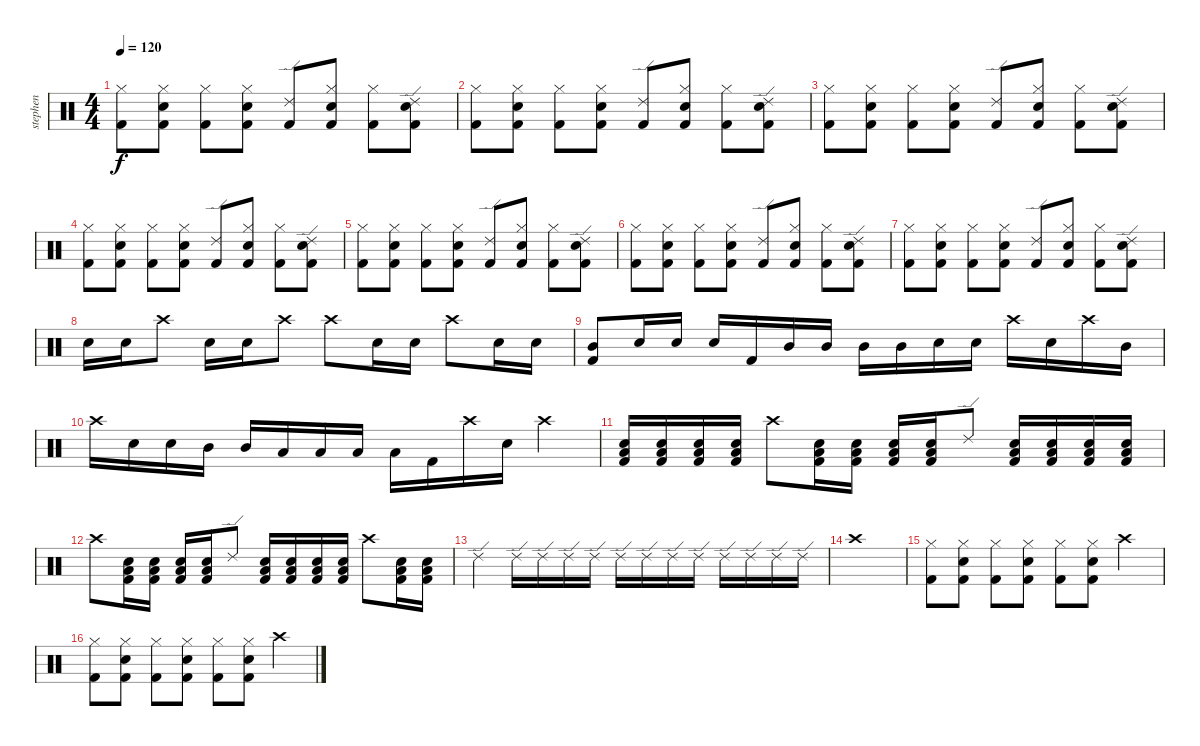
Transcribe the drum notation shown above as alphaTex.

\track ("stephen" "stephen") {instrument percussion}
\staff {score}
\articulation defaults
\ts (4 4)
\tempo 120
\clef neutral
\ks c
("Kick (hit) 2" "Hi-Hat (closed)").8{dy f} ("Kick (hit) 2" "Snare (hit) 2" "Hi-Hat (closed)").8 ("Kick (hit) 2" "Hi-Hat (closed)").8 ("Snare (hit) 2" "Kick (hit) 2" "Hi-Hat (closed)").8 ("Kick (hit) 2" "Ride (edge) 2").8 ("Snare (hit) 2" "Kick (hit) 2" "Hi-Hat (closed)").8 ("Kick (hit) 2" "Hi-Hat (closed)").8 ("Snare (hit) 2" "Kick (hit) 2" "Ride (edge) 2").8 |
("Kick (hit) 2" "Hi-Hat (closed)").8 ("Kick (hit) 2" "Snare (hit) 2" "Hi-Hat (closed)").8 ("Kick (hit) 2" "Hi-Hat (closed)").8 ("Snare (hit) 2" "Kick (hit) 2" "Hi-Hat (closed)").8 ("Kick (hit) 2" "Ride (edge) 2").8 ("Snare (hit) 2" "Kick (hit) 2" "Hi-Hat (closed)").8 ("Kick (hit) 2" "Hi-Hat (closed)").8 ("Snare (hit) 2" "Kick (hit) 2" "Ride (edge) 2").8 |
("Kick (hit) 2" "Hi-Hat (closed)").8 ("Kick (hit) 2" "Snare (hit) 2" "Hi-Hat (closed)").8 ("Kick (hit) 2" "Hi-Hat (closed)").8 ("Snare (hit) 2" "Kick (hit) 2" "Hi-Hat (closed)").8 ("Kick (hit) 2" "Ride (edge) 2").8 ("Snare (hit) 2" "Kick (hit) 2" "Hi-Hat (closed)").8 ("Kick (hit) 2" "Hi-Hat (closed)").8 ("Snare (hit) 2" "Kick (hit) 2" "Ride (edge) 2").8 |
("Kick (hit) 2" "Hi-Hat (closed)").8 ("Kick (hit) 2" "Snare (hit) 2" "Hi-Hat (closed)").8 ("Kick (hit) 2" "Hi-Hat (closed)").8 ("Snare (hit) 2" "Kick (hit) 2" "Hi-Hat (closed)").8 ("Kick (hit) 2" "Ride (edge) 2").8 ("Snare (hit) 2" "Kick (hit) 2" "Hi-Hat (closed)").8 ("Kick (hit) 2" "Hi-Hat (closed)").8 ("Snare (hit) 2" "Kick (hit) 2" "Ride (edge) 2").8 |
("Kick (hit) 2" "Hi-Hat (closed)").8 ("Kick (hit) 2" "Snare (hit) 2" "Hi-Hat (closed)").8 ("Kick (hit) 2" "Hi-Hat (closed)").8 ("Snare (hit) 2" "Kick (hit) 2" "Hi-Hat (closed)").8 ("Kick (hit) 2" "Ride (edge) 2").8 ("Snare (hit) 2" "Kick (hit) 2" "Hi-Hat (closed)").8 ("Kick (hit) 2" "Hi-Hat (closed)").8 ("Snare (hit) 2" "Kick (hit) 2" "Ride (edge) 2").8 |
("Kick (hit) 2" "Hi-Hat (closed)").8 ("Kick (hit) 2" "Snare (hit) 2" "Hi-Hat (closed)").8 ("Kick (hit) 2" "Hi-Hat (closed)").8 ("Snare (hit) 2" "Kick (hit) 2" "Hi-Hat (closed)").8 ("Kick (hit) 2" "Ride (edge) 2").8 ("Snare (hit) 2" "Kick (hit) 2" "Hi-Hat (closed)").8 ("Kick (hit) 2" "Hi-Hat (closed)").8 ("Snare (hit) 2" "Kick (hit) 2" "Ride (edge) 2").8 |
("Kick (hit) 2" "Hi-Hat (closed)").8 ("Kick (hit) 2" "Snare (hit) 2" "Hi-Hat (closed)").8 ("Kick (hit) 2" "Hi-Hat (closed)").8 ("Snare (hit) 2" "Kick (hit) 2" "Hi-Hat (closed)").8 ("Kick (hit) 2" "Ride (edge) 2").8 ("Snare (hit) 2" "Kick (hit) 2" "Hi-Hat (closed)").8 ("Kick (hit) 2" "Hi-Hat (closed)").8 ("Snare (hit) 2" "Kick (hit) 2" "Ride (edge) 2").8 |
"Snare (hit) 2".16 "Snare (hit) 2".16 "Crash high (hit)".8 "Snare (hit) 2".16 "Snare (hit) 2".16 "Crash high (hit)".8 "Crash high (hit)".8 "Snare (hit) 2".16 "Snare (hit) 2".16 "Crash high (hit)".8 "Snare (hit) 2".16 "Snare (hit) 2".16 |
("Kick (hit) 2" "Mid Tom (hit)").8 "Snare (hit) 2".16 "Snare (hit) 2".16 "Snare (hit) 2".16 "Kick (hit) 2".16 "Mid Tom (hit)".16 "Mid Tom (hit)".16 "Mid Tom (hit)".16 "Mid Tom (hit)".16 "Snare (hit) 2".16 "Snare (hit) 2".16 "Crash high (hit)".16 "Snare (hit) 2".16 "Crash high (hit)".16 "Mid Tom (hit)".16 |
"Crash high (hit)".16 "Snare (hit) 2".16 "Snare (hit) 2".16 "Mid Tom (hit)".16 "Mid Tom (hit)".16 "Low Tom (hit)".16 "Low Tom (hit)".16 "Low Floor Tom (hit)".16 "Low Floor Tom (hit)".16 "Kick (hit) 2".16 "Crash high (hit)".16 "Snare (hit) 2".16 "Crash high (hit)".4 |
("Low Floor Tom (hit)" "Kick (hit) 2" "Snare (hit) 2").16 ("Low Floor Tom (hit)" "Kick (hit) 2" "Snare (hit) 2").16 ("Low Floor Tom (hit)" "Kick (hit) 2" "Snare (hit) 2").16 ("Low Floor Tom (hit)" "Kick (hit) 2" "Snare (hit) 2").16 "Crash high (hit)".8 ("Low Floor Tom (hit)" "Kick (hit) 2" "Snare (hit) 2").16 ("Low Floor Tom (hit)" "Kick (hit) 2" "Snare (hit) 2").16 ("Low Floor Tom (hit)" "Kick (hit) 2" "Snare (hit) 2").16 ("Low Floor Tom (hit)" "Kick (hit) 2" "Snare (hit) 2").16 "Ride (edge) 2".8 ("Low Floor Tom (hit)" "Kick (hit) 2" "Snare (hit) 2").16 ("Low Floor Tom (hit)" "Kick (hit) 2" "Snare (hit) 2").16 ("Low Floor Tom (hit)" "Kick (hit) 2" "Snare (hit) 2").16 ("Low Floor Tom (hit)" "Kick (hit) 2" "Snare (hit) 2").16 |
"Crash high (hit)".8 ("Low Floor Tom (hit)" "Kick (hit) 2" "Snare (hit) 2").16 ("Low Floor Tom (hit)" "Kick (hit) 2" "Snare (hit) 2").16 ("Low Floor Tom (hit)" "Kick (hit) 2" "Snare (hit) 2").16 ("Low Floor Tom (hit)" "Kick (hit) 2" "Snare (hit) 2").16 "Ride (edge) 2".8 ("Low Floor Tom (hit)" "Kick (hit) 2" "Snare (hit) 2").16 ("Low Floor Tom (hit)" "Kick (hit) 2" "Snare (hit) 2").16 ("Low Floor Tom (hit)" "Kick (hit) 2" "Snare (hit) 2").16 ("Low Floor Tom (hit)" "Kick (hit) 2" "Snare (hit) 2").16 "Crash high (hit)".8 ("Low Floor Tom (hit)" "Kick (hit) 2" "Snare (hit) 2").16 ("Low Floor Tom (hit)" "Kick (hit) 2" "Snare (hit) 2").16 |
"Ride (edge) 2".4 "Ride (edge) 2".16 "Ride (edge) 2".16 "Ride (edge) 2".16 "Ride (edge) 2".16 "Ride (edge) 2".16 "Ride (edge) 2".16 "Ride (edge) 2".16 "Ride (edge) 2".16 "Ride (edge) 2".16 "Ride (edge) 2".16 "Ride (edge) 2".16 "Ride (edge) 2".16 |
"Crash high (hit)".1 |
("Hi-Hat (closed)" "Kick (hit) 2").8 ("Kick (hit) 2" "Hi-Hat (closed)" "Snare (hit) 2").8 ("Kick (hit) 2" "Hi-Hat (closed)").8 ("Kick (hit) 2" "Hi-Hat (closed)" "Snare (hit) 2").8 ("Kick (hit) 2" "Hi-Hat (closed)").8 ("Kick (hit) 2" "Hi-Hat (closed)" "Snare (hit) 2").8 "Crash high (hit)".4 |
("Hi-Hat (closed)" "Kick (hit) 2").8 ("Kick (hit) 2" "Hi-Hat (closed)" "Snare (hit) 2").8 ("Kick (hit) 2" "Hi-Hat (closed)").8 ("Kick (hit) 2" "Hi-Hat (closed)" "Snare (hit) 2").8 ("Kick (hit) 2" "Hi-Hat (closed)").8 ("Kick (hit) 2" "Hi-Hat (closed)" "Snare (hit) 2").8 "Crash high (hit)".4
